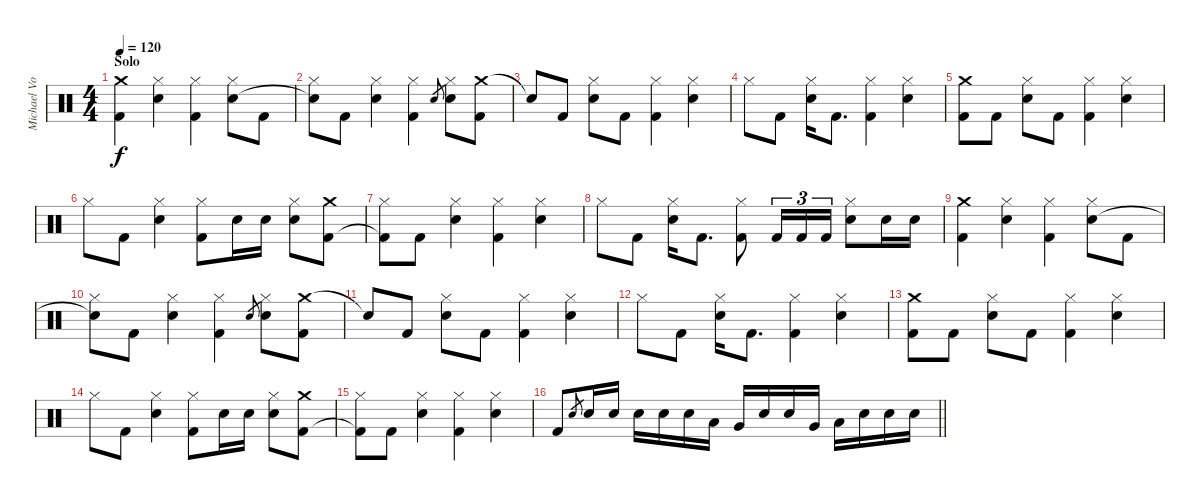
\track ("Michael Von Knorring" "Michael Vo") {instrument percussion}
\staff {score}
\articulation defaults
\ts (4 4)
\section ("" "Solo")
\tempo 120
\clef neutral
\ks c
("Crash medium (hit)" "Kick (hit) 2").4{dy f} ("Hi-Hat (closed)" "Electric Snare (hit)").4 ("Hi-Hat (closed)" "Kick (hit) 2").4 ("Hi-Hat (closed)" "Electric Snare (hit)").8 "Kick (hit) 2".8 |
("Hi-Hat (closed)" "Snare (hit)"{t}).8 "Kick (hit) 2".8 ("Hi-Hat (closed)" "Electric Snare (hit)").4 ("Hi-Hat (closed)" "Kick (hit) 2").4 "Electric Snare (hit)".8{gr} ("Hi-Hat (closed)" "Electric Snare (hit)").8 ("Crash medium (hit)" "Kick (hit) 2").8 |
"Snare (hit)"{t}.8 "Kick (hit) 2".8 ("Hi-Hat (closed)" "Electric Snare (hit)").8 "Kick (hit) 2".8 ("Hi-Hat (closed)" "Kick (hit) 2").4 ("Hi-Hat (closed)" "Electric Snare (hit)").4 |
"Hi-Hat (closed)".8 "Kick (hit) 2".8 ("Hi-Hat (closed)" "Electric Snare (hit)").16 "Kick (hit) 2".8{d} ("Hi-Hat (closed)" "Kick (hit) 2").4 ("Hi-Hat (closed)" "Electric Snare (hit)").4 |
("Crash medium (hit)" "Kick (hit) 2").8 "Kick (hit) 2".8 ("Hi-Hat (closed)" "Electric Snare (hit)").8 "Kick (hit) 2".8 ("Hi-Hat (closed)" "Kick (hit) 2").4 ("Hi-Hat (closed)" "Electric Snare (hit)").4 |
"Hi-Hat (closed)".8 "Kick (hit) 2".8 ("Hi-Hat (closed)" "Electric Snare (hit)").4 ("Hi-Hat (closed)" "Kick (hit) 2").8 "Electric Snare (hit)".16 "Electric Snare (hit)".16 ("Hi-Hat (closed)" "Electric Snare (hit)").8 ("Crash medium (hit)" "Kick (hit) 2").8 |
("Hi-Hat (closed)" "Kick (hit) 2"{t}).8 "Kick (hit) 2".8 ("Hi-Hat (closed)" "Electric Snare (hit)").4 ("Hi-Hat (closed)" "Kick (hit) 2").4 ("Hi-Hat (closed)" "Electric Snare (hit)").4 |
"Hi-Hat (closed)".8 "Kick (hit) 2".8 ("Hi-Hat (closed)" "Electric Snare (hit)").16 "Kick (hit) 2".8{d} ("Hi-Hat (closed)" "Kick (hit) 2").8 "Kick (hit) 2".16{tu (3 2)} "Kick (hit) 2".16{tu (3 2)} "Kick (hit) 2".16{tu (3 2)} ("Hi-Hat (closed)" "Electric Snare (hit)").8 "Electric Snare (hit)".16 "Electric Snare (hit)".16 |
("Crash medium (hit)" "Kick (hit) 2").4 ("Hi-Hat (closed)" "Electric Snare (hit)").4 ("Hi-Hat (closed)" "Kick (hit) 2").4 ("Hi-Hat (closed)" "Electric Snare (hit)").8 "Kick (hit) 2".8 |
("Hi-Hat (closed)" "Snare (hit)"{t}).8 "Kick (hit) 2".8 ("Hi-Hat (closed)" "Electric Snare (hit)").4 ("Hi-Hat (closed)" "Kick (hit) 2").4 "Electric Snare (hit)".8{gr} ("Hi-Hat (closed)" "Electric Snare (hit)").8 ("Crash medium (hit)" "Kick (hit) 2").8 |
"Snare (hit)"{t}.8 "Kick (hit) 2".8 ("Hi-Hat (closed)" "Electric Snare (hit)").8 "Kick (hit) 2".8 ("Hi-Hat (closed)" "Kick (hit) 2").4 ("Hi-Hat (closed)" "Electric Snare (hit)").4 |
"Hi-Hat (closed)".8 "Kick (hit) 2".8 ("Hi-Hat (closed)" "Electric Snare (hit)").16 "Kick (hit) 2".8{d} ("Hi-Hat (closed)" "Kick (hit) 2").4 ("Hi-Hat (closed)" "Electric Snare (hit)").4 |
("Crash medium (hit)" "Kick (hit) 2").8 "Kick (hit) 2".8 ("Hi-Hat (closed)" "Electric Snare (hit)").8 "Kick (hit) 2".8 ("Hi-Hat (closed)" "Kick (hit) 2").4 ("Hi-Hat (closed)" "Electric Snare (hit)").4 |
"Hi-Hat (closed)".8 "Kick (hit) 2".8 ("Hi-Hat (closed)" "Electric Snare (hit)").4 ("Hi-Hat (closed)" "Kick (hit) 2").8 "Electric Snare (hit)".16 "Electric Snare (hit)".16 ("Hi-Hat (closed)" "Electric Snare (hit)").8 ("Crash medium (hit)" "Kick (hit) 2").8 |
("Hi-Hat (closed)" "Kick (hit) 2"{t}).8 "Kick (hit) 2".8 ("Hi-Hat (closed)" "Electric Snare (hit)").4 ("Hi-Hat (closed)" "Kick (hit) 2").4 ("Hi-Hat (closed)" "Electric Snare (hit)").4 |
\barLineRight lightlight "Kick (hit) 2".8 "Electric Snare (hit)".8{gr} "Electric Snare (hit)".16 "Electric Snare (hit)".16 "Electric Snare (hit)".16 "Electric Snare (hit)".16 "Electric Snare (hit)".16 "Low Tom (hit)".16 "Very Low Tom (hit)".16 "Electric Snare (hit)".16 "Electric Snare (hit)".16 "Very Low Tom (hit)".16 "Low Floor Tom (hit)".16 "Electric Snare (hit)".16 "Electric Snare (hit)".16 "Electric Snare (hit)".16
